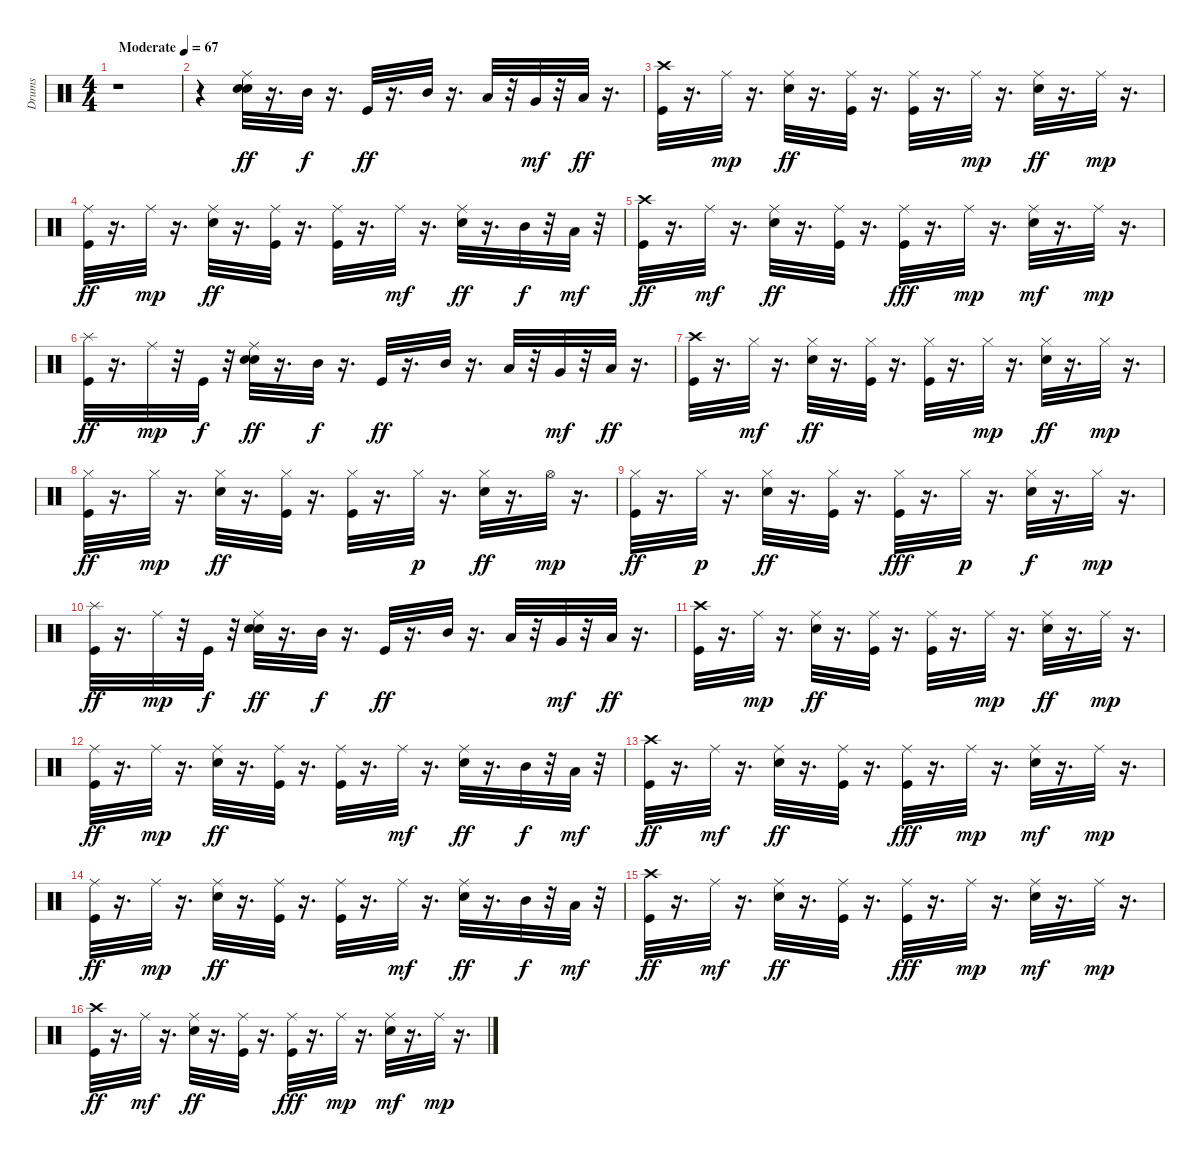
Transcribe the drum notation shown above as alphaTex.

\track ("Drums" "Drums") {instrument percussion}
\staff {score}
\articulation defaults
\ts (4 4)
\tempo (67 "Moderate")
\clef neutral
\ks c
r.1{dy ff} |
r.4 ("Snare (hit) 2" "Ride (middle)" "Electric Snare (hit)").32 r.16{d} "Mid Tom (hit)".32{dy f} r.16{d} "Kick (hit)".32{dy ff} r.16{d} "Mid Tom (hit)".32 r.16{d} "Low Tom (hit)".32 r.32 "Very Low Tom (hit)".32{dy mf} r.32 "Low Floor Tom (hit)".32{dy ff} r.16{d} |
("Crash high (hit)" "Kick (hit)").32 r.16{d} "Ride (middle)".32{dy mp} r.16{d} ("Ride (middle)" "Electric Snare (hit)").32{dy ff} r.16{d} ("Ride (middle)" "Kick (hit)").32 r.16{d} ("Ride (middle)" "Kick (hit)").32 r.16{d} "Ride (middle)".32{dy mp} r.16{d} ("Ride (middle)" "Electric Snare (hit)").32{dy ff} r.16{d} "Ride (middle)".32{dy mp} r.16{d} |
("Ride (middle)" "Kick (hit)").32{dy ff} r.16{d} "Ride (middle)".32{dy mp} r.16{d} ("Ride (middle)" "Electric Snare (hit)").32{dy ff} r.16{d} ("Ride (middle)" "Kick (hit)").32 r.16{d} ("Ride (middle)" "Kick (hit)").32 r.16{d} "Ride (middle)".32{dy mf} r.16{d} ("Ride (middle)" "Electric Snare (hit)").32{dy ff} r.16{d} "Mid Tom (hit)".32{dy f} r.32 "Low Tom (hit)".32{dy mf} r.32 |
("Crash high (hit)" "Kick (hit)").32{dy ff} r.16{d} "Ride (middle)".32{dy mf} r.16{d} ("Ride (middle)" "Electric Snare (hit)").32{dy ff} r.16{d} ("Ride (middle)" "Kick (hit)").32 r.16{d} ("Ride (middle)" "Kick (hit)").32{dy fff} r.16{d} "Ride (middle)".32{dy mp} r.16{d} ("Ride (middle)" "Electric Snare (hit)").32{dy mf} r.16{d} "Ride (middle)".32{dy mp} r.16{d} |
("Splash (hit)" "Kick (hit)").32{dy ff} r.16{d} "Ride (middle)".32{dy mp} r.32 "Kick (hit)".32{dy f} r.32 ("Snare (hit) 2" "Ride (middle)" "Electric Snare (hit)").32{dy ff} r.16{d} "Mid Tom (hit)".32{dy f} r.16{d} "Kick (hit)".32{dy ff} r.16{d} "Mid Tom (hit)".32 r.16{d} "Low Tom (hit)".32 r.32 "Very Low Tom (hit)".32{dy mf} r.32 "Low Floor Tom (hit)".32{dy ff} r.16{d} |
("Crash high (hit)" "Kick (hit)").32 r.16{d} "Hi-Hat (closed)".32{dy mf} r.16{d} ("Hi-Hat (closed)" "Electric Snare (hit)").32{dy ff} r.16{d} ("Hi-Hat (closed)" "Kick (hit)").32 r.16{d} ("Hi-Hat (closed)" "Kick (hit)").32 r.16{d} "Hi-Hat (closed)".32{dy mp} r.16{d} ("Hi-Hat (closed)" "Electric Snare (hit)").32{dy ff} r.16{d} "Hi-Hat (closed)".32{dy mp} r.16{d} |
("Hi-Hat (closed)" "Kick (hit)").32{dy ff} r.16{d} "Hi-Hat (closed)".32{dy mp} r.16{d} ("Hi-Hat (closed)" "Electric Snare (hit)").32{dy ff} r.16{d} ("Hi-Hat (closed)" "Kick (hit)").32 r.16{d} ("Hi-Hat (closed)" "Kick (hit)").32 r.16{d} "Hi-Hat (closed)".32{dy p} r.16{d} ("Hi-Hat (closed)" "Electric Snare (hit)").32{dy ff} r.16{d} "Hi-Hat (open)".32{dy mp} r.16{d} |
("Hi-Hat (closed)" "Kick (hit)").32{dy ff} r.16{d} "Hi-Hat (closed)".32{dy p} r.16{d} ("Hi-Hat (closed)" "Electric Snare (hit)").32{dy ff} r.16{d} ("Hi-Hat (closed)" "Kick (hit)").32 r.16{d} ("Hi-Hat (closed)" "Kick (hit)").32{dy fff} r.16{d} "Hi-Hat (closed)".32{dy p} r.16{d} ("Hi-Hat (closed)" "Electric Snare (hit)").32{dy f} r.16{d} "Hi-Hat (closed)".32{dy mp} r.16{d} |
("Splash (hit)" "Kick (hit)").32{dy ff} r.16{d} "Ride (middle)".32{dy mp} r.32 "Kick (hit)".32{dy f} r.32 ("Snare (hit) 2" "Ride (middle)" "Electric Snare (hit)").32{dy ff} r.16{d} "Mid Tom (hit)".32{dy f} r.16{d} "Kick (hit)".32{dy ff} r.16{d} "Mid Tom (hit)".32 r.16{d} "Low Tom (hit)".32 r.32 "Very Low Tom (hit)".32{dy mf} r.32 "Low Floor Tom (hit)".32{dy ff} r.16{d} |
("Crash high (hit)" "Kick (hit)").32 r.16{d} "Ride (middle)".32{dy mp} r.16{d} ("Ride (middle)" "Electric Snare (hit)").32{dy ff} r.16{d} ("Ride (middle)" "Kick (hit)").32 r.16{d} ("Ride (middle)" "Kick (hit)").32 r.16{d} "Ride (middle)".32{dy mp} r.16{d} ("Ride (middle)" "Electric Snare (hit)").32{dy ff} r.16{d} "Ride (middle)".32{dy mp} r.16{d} |
("Ride (middle)" "Kick (hit)").32{dy ff} r.16{d} "Ride (middle)".32{dy mp} r.16{d} ("Ride (middle)" "Electric Snare (hit)").32{dy ff} r.16{d} ("Ride (middle)" "Kick (hit)").32 r.16{d} ("Ride (middle)" "Kick (hit)").32 r.16{d} "Ride (middle)".32{dy mf} r.16{d} ("Ride (middle)" "Electric Snare (hit)").32{dy ff} r.16{d} "Mid Tom (hit)".32{dy f} r.32 "Low Tom (hit)".32{dy mf} r.32 |
("Crash high (hit)" "Kick (hit)").32{dy ff} r.16{d} "Ride (middle)".32{dy mf} r.16{d} ("Ride (middle)" "Electric Snare (hit)").32{dy ff} r.16{d} ("Ride (middle)" "Kick (hit)").32 r.16{d} ("Ride (middle)" "Kick (hit)").32{dy fff} r.16{d} "Ride (middle)".32{dy mp} r.16{d} ("Ride (middle)" "Electric Snare (hit)").32{dy mf} r.16{d} "Ride (middle)".32{dy mp} r.16{d} |
("Ride (middle)" "Kick (hit)").32{dy ff} r.16{d} "Ride (middle)".32{dy mp} r.16{d} ("Ride (middle)" "Electric Snare (hit)").32{dy ff} r.16{d} ("Ride (middle)" "Kick (hit)").32 r.16{d} ("Ride (middle)" "Kick (hit)").32 r.16{d} "Ride (middle)".32{dy mf} r.16{d} ("Ride (middle)" "Electric Snare (hit)").32{dy ff} r.16{d} "Mid Tom (hit)".32{dy f} r.32 "Low Tom (hit)".32{dy mf} r.32 |
("Crash high (hit)" "Kick (hit)").32{dy ff} r.16{d} "Ride (middle)".32{dy mf} r.16{d} ("Ride (middle)" "Electric Snare (hit)").32{dy ff} r.16{d} ("Ride (middle)" "Kick (hit)").32 r.16{d} ("Ride (middle)" "Kick (hit)").32{dy fff} r.16{d} "Ride (middle)".32{dy mp} r.16{d} ("Ride (middle)" "Electric Snare (hit)").32{dy mf} r.16{d} "Ride (middle)".32{dy mp} r.16{d} |
("Crash high (hit)" "Kick (hit)").32{dy ff} r.16{d} "Ride (middle)".32{dy mf} r.16{d} ("Ride (middle)" "Electric Snare (hit)").32{dy ff} r.16{d} ("Ride (middle)" "Kick (hit)").32 r.16{d} ("Ride (middle)" "Kick (hit)").32{dy fff} r.16{d} "Ride (middle)".32{dy mp} r.16{d} ("Ride (middle)" "Electric Snare (hit)").32{dy mf} r.16{d} "Ride (middle)".32{dy mp} r.16{d}
